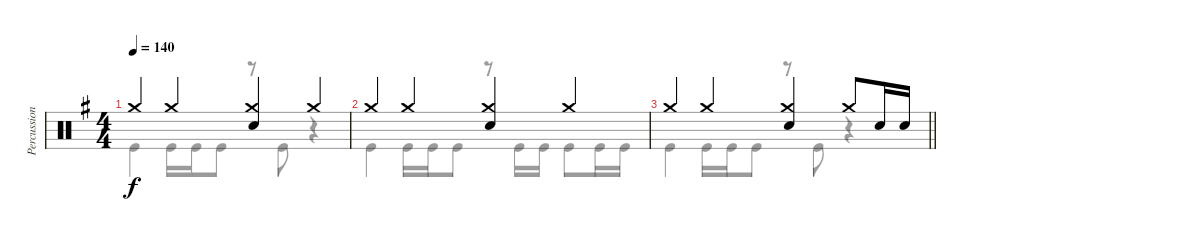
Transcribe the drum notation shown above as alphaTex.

\track ("Percussion" "Percussion") {instrument percussion}
\staff {score}
\articulation defaults
\voice
\ts (4 4)
\tempo 140
\clef neutral
\ks eminor "Crash medium (hit)".4{dy f} "Crash medium (hit)".4
("Crash medium (hit)" "Electric Snare (hit)").4 "Crash medium (hit)".4 |
"Crash medium (hit)".4 "Crash medium (hit)".4 ("Crash medium (hit)" "Electric Snare (hit)").4 "Crash medium (hit)".4 |
\barLineRight lightlight "Crash medium (hit)".4 "Crash medium (hit)".4
("Crash medium (hit)" "Electric Snare (hit)").4 "Crash medium (hit)".8 "Electric Snare (hit)".16 "Electric Snare (hit)".16
\voice
\clef neutral
\ottava regular
\simile none
\ks eminor "Kick (hit)".4{dy f} "Kick (hit)".16 "Kick (hit)".16 "Kick (hit)".8
r.8 "Kick (hit)".8 r.4 |
"Kick (hit)".4 "Kick (hit)".16 "Kick (hit)".16 "Kick (hit)".8 r.8 "Kick (hit)".16 "Kick (hit)".16 "Kick (hit)".8 "Kick (hit)".16 "Kick (hit)".16 |
\barLineRight lightlight "Kick (hit)".4 "Kick (hit)".16 "Kick (hit)".16 "Kick (hit)".8
r.8 "Kick (hit)".8 r.4
